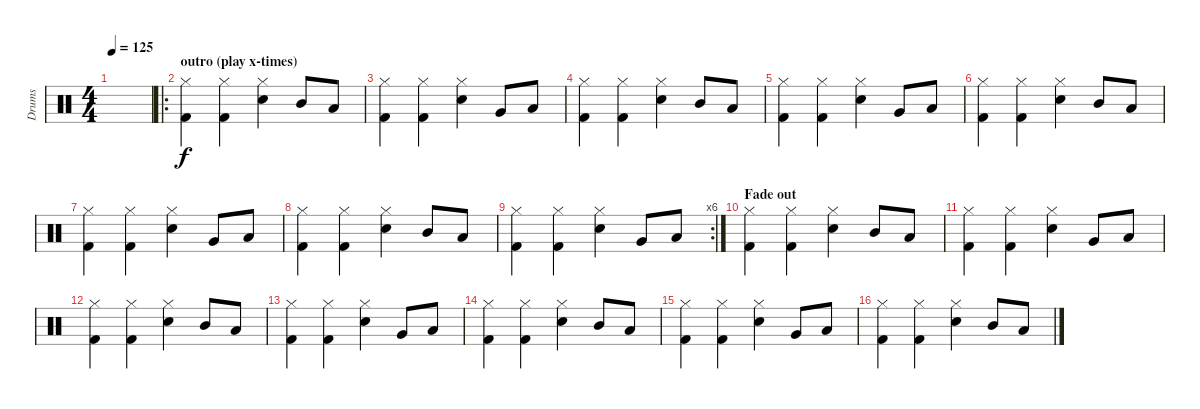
\track ("Drums" "Drums") {instrument percussion}
\staff {score}
\articulation defaults
\ts (4 4)
\tempo 125
\clef neutral
\ks c
|
\ro
\section ("" "outro (play x-times) ")
("Hi-Hat (closed)" "Kick (hit) 2").4 ("Hi-Hat (closed)" "Kick (hit) 2").4 ("Hi-Hat (closed)" "Snare (hit) 2").4 "Mid Tom (hit)".8 "Low Tom (hit)".8 |
("Hi-Hat (closed)" "Kick (hit) 2").4 ("Hi-Hat (closed)" "Kick (hit) 2").4 ("Hi-Hat (closed)" "Snare (hit) 2").4 "Very Low Tom (hit)".8 "Low Floor Tom (hit)".8 |
("Hi-Hat (closed)" "Kick (hit) 2").4 ("Hi-Hat (closed)" "Kick (hit) 2").4 ("Hi-Hat (closed)" "Snare (hit) 2").4 "Mid Tom (hit)".8 "Low Tom (hit)".8 |
("Hi-Hat (closed)" "Kick (hit) 2").4 ("Hi-Hat (closed)" "Kick (hit) 2").4 ("Hi-Hat (closed)" "Snare (hit) 2").4 "Very Low Tom (hit)".8 "Low Floor Tom (hit)".8 |
("Hi-Hat (closed)" "Kick (hit) 2").4 ("Hi-Hat (closed)" "Kick (hit) 2").4 ("Hi-Hat (closed)" "Snare (hit) 2").4 "Mid Tom (hit)".8 "Low Tom (hit)".8 |
("Hi-Hat (closed)" "Kick (hit) 2").4 ("Hi-Hat (closed)" "Kick (hit) 2").4 ("Hi-Hat (closed)" "Snare (hit) 2").4 "Very Low Tom (hit)".8 "Low Floor Tom (hit)".8 |
("Hi-Hat (closed)" "Kick (hit) 2").4 ("Hi-Hat (closed)" "Kick (hit) 2").4 ("Hi-Hat (closed)" "Snare (hit) 2").4 "Mid Tom (hit)".8 "Low Tom (hit)".8 |
\rc 6
("Hi-Hat (closed)" "Kick (hit) 2").4 ("Hi-Hat (closed)" "Kick (hit) 2").4 ("Hi-Hat (closed)" "Snare (hit) 2").4 "Very Low Tom (hit)".8 "Low Floor Tom (hit)".8 |
\section ("" "Fade out")
("Hi-Hat (closed)" "Kick (hit) 2").4{volume 7} ("Hi-Hat (closed)" "Kick (hit) 2").4 ("Hi-Hat (closed)" "Snare (hit) 2").4 "Mid Tom (hit)".8 "Low Tom (hit)".8 |
("Hi-Hat (closed)" "Kick (hit) 2").4 ("Hi-Hat (closed)" "Kick (hit) 2").4 ("Hi-Hat (closed)" "Snare (hit) 2").4 "Very Low Tom (hit)".8 "Low Floor Tom (hit)".8 |
("Hi-Hat (closed)" "Kick (hit) 2").4 ("Hi-Hat (closed)" "Kick (hit) 2").4{volume 6} ("Hi-Hat (closed)" "Snare (hit) 2").4 "Mid Tom (hit)".8 "Low Tom (hit)".8 |
("Hi-Hat (closed)" "Kick (hit) 2").4 ("Hi-Hat (closed)" "Kick (hit) 2").4 ("Hi-Hat (closed)" "Snare (hit) 2").4 "Very Low Tom (hit)".8 "Low Floor Tom (hit)".8 |
("Hi-Hat (closed)" "Kick (hit) 2").4 ("Hi-Hat (closed)" "Kick (hit) 2").4{volume 4} ("Hi-Hat (closed)" "Snare (hit) 2").4 "Mid Tom (hit)".8 "Low Tom (hit)".8 |
("Hi-Hat (closed)" "Kick (hit) 2").4 ("Hi-Hat (closed)" "Kick (hit) 2").4 ("Hi-Hat (closed)" "Snare (hit) 2").4 "Very Low Tom (hit)".8 "Low Floor Tom (hit)".8 |
("Hi-Hat (closed)" "Kick (hit) 2").4 ("Hi-Hat (closed)" "Kick (hit) 2").4 ("Hi-Hat (closed)" "Snare (hit) 2").4{volume 2} "Mid Tom (hit)".8 "Low Tom (hit)".8
